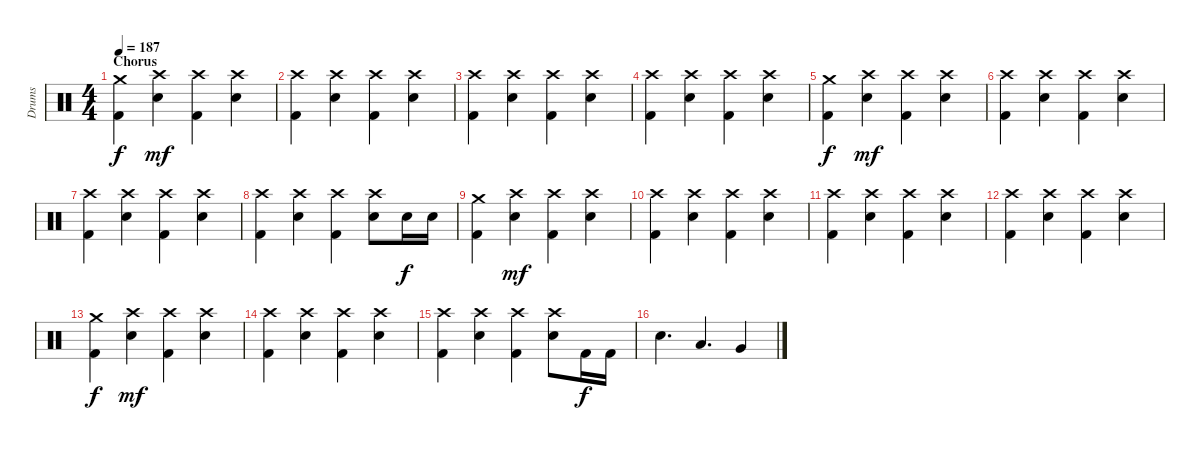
\track ("Drums" "Drums") {instrument percussion}
\staff {score}
\articulation defaults
\ts (4 4)
\section ("" "Chorus")
\tempo 187
\clef neutral
\ks c
("Crash medium (hit)" "Kick (hit) 2").4{dy f} ("Crash high (hit)" "Snare (hit) 2").4{dy mf} ("Crash high (hit)" "Kick (hit) 2").4 ("Crash high (hit)" "Snare (hit) 2").4 |
("Crash high (hit)" "Kick (hit) 2").4 ("Crash high (hit)" "Snare (hit) 2").4 ("Crash high (hit)" "Kick (hit) 2").4 ("Crash high (hit)" "Snare (hit) 2").4 |
("Crash high (hit)" "Kick (hit) 2").4 ("Crash high (hit)" "Snare (hit) 2").4 ("Crash high (hit)" "Kick (hit) 2").4 ("Crash high (hit)" "Snare (hit) 2").4 |
("Crash high (hit)" "Kick (hit) 2").4 ("Crash high (hit)" "Snare (hit) 2").4 ("Crash high (hit)" "Kick (hit) 2").4 ("Crash high (hit)" "Snare (hit) 2").4 |
("Crash medium (hit)" "Kick (hit) 2").4{dy f} ("Crash high (hit)" "Snare (hit) 2").4{dy mf} ("Crash high (hit)" "Kick (hit) 2").4 ("Crash high (hit)" "Snare (hit) 2").4 |
("Crash high (hit)" "Kick (hit) 2").4 ("Crash high (hit)" "Snare (hit) 2").4 ("Crash high (hit)" "Kick (hit) 2").4 ("Crash high (hit)" "Snare (hit) 2").4 |
("Crash high (hit)" "Kick (hit) 2").4 ("Crash high (hit)" "Snare (hit) 2").4 ("Crash high (hit)" "Kick (hit) 2").4 ("Crash high (hit)" "Snare (hit) 2").4 |
("Crash high (hit)" "Kick (hit) 2").4 ("Crash high (hit)" "Snare (hit) 2").4 ("Crash high (hit)" "Kick (hit) 2").4 ("Crash high (hit)" "Snare (hit) 2").8 "Snare (hit) 2".16{dy f} "Snare (hit) 2".16 |
("Crash medium (hit)" "Kick (hit) 2").4 ("Crash high (hit)" "Snare (hit) 2").4{dy mf} ("Crash high (hit)" "Kick (hit) 2").4 ("Crash high (hit)" "Snare (hit) 2").4 |
("Crash high (hit)" "Kick (hit) 2").4 ("Crash high (hit)" "Snare (hit) 2").4 ("Crash high (hit)" "Kick (hit) 2").4 ("Crash high (hit)" "Snare (hit) 2").4 |
("Crash high (hit)" "Kick (hit) 2").4 ("Crash high (hit)" "Snare (hit) 2").4 ("Crash high (hit)" "Kick (hit) 2").4 ("Crash high (hit)" "Snare (hit) 2").4 |
("Crash high (hit)" "Kick (hit) 2").4 ("Crash high (hit)" "Snare (hit) 2").4 ("Crash high (hit)" "Kick (hit) 2").4 ("Crash high (hit)" "Snare (hit) 2").4 |
("Crash medium (hit)" "Kick (hit) 2").4{dy f} ("Crash high (hit)" "Snare (hit) 2").4{dy mf} ("Crash high (hit)" "Kick (hit) 2").4 ("Crash high (hit)" "Snare (hit) 2").4 |
("Crash high (hit)" "Kick (hit) 2").4 ("Crash high (hit)" "Snare (hit) 2").4 ("Crash high (hit)" "Kick (hit) 2").4 ("Crash high (hit)" "Snare (hit) 2").4 |
("Crash high (hit)" "Kick (hit) 2").4 ("Crash high (hit)" "Snare (hit) 2").4 ("Crash high (hit)" "Kick (hit) 2").4 ("Crash high (hit)" "Snare (hit) 2").8 "Kick (hit) 2".16{dy f} "Kick (hit) 2".16 |
"Snare (hit) 2".4{d} "Low Tom (hit)".4{d} "Very Low Tom (hit)".4
